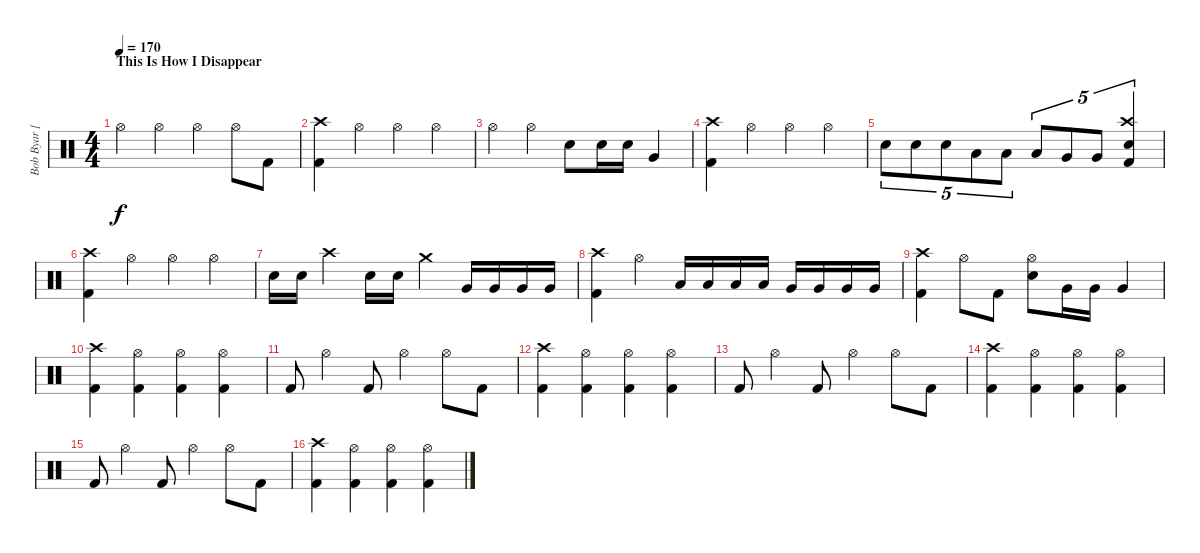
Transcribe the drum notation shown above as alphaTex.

\track ("Bob Byar [Drums]" "Bob Byar [") {instrument percussion}
\staff {score}
\articulation defaults
\ts (4 4)
\section ("" "This Is How I Disappear")
\tempo 170
\clef neutral
\ks c "Hi-Hat (open)".4{dy f} "Hi-Hat (open)".4 "Hi-Hat (open)".4 "Hi-Hat (open)".8 "Kick (hit) 2".8
|
("Crash high (hit)" "Kick (hit) 2").4 "Hi-Hat (open)".4 "Hi-Hat (open)".4 "Hi-Hat (open)".4 |
"Hi-Hat (open)".4 "Hi-Hat (open)".4 "Electric Snare (hit)".8 "Electric Snare (hit)".16 "Electric Snare (hit)".16 "Very Low Tom (hit)".4 |
("Crash high (hit)" "Kick (hit) 2").4 "Hi-Hat (open)".4 "Hi-Hat (open)".4 "Hi-Hat (open)".4 |
"Electric Snare (hit)".8{tu (5 4)} "Electric Snare (hit)".8{tu (5 4)} "Electric Snare (hit)".8{tu (5 4)} "Low Tom (hit)".8{tu (5 4)} "Low Tom (hit)".8{tu (5 4)} "Low Tom (hit)".8{tu (5 4)} "Very Low Tom (hit)".8{tu (5 4)} "Very Low Tom (hit)".8{tu (5 4)} ("Crash high (hit)" "Electric Snare (hit)" "Kick (hit) 2").4{tu (5 4)} |
("Crash high (hit)" "Kick (hit) 2").4 "Hi-Hat (open)".4 "Hi-Hat (open)".4 "Hi-Hat (open)".4 |
"Electric Snare (hit)".16 "Electric Snare (hit)".16 "Crash high (hit)".4 "Electric Snare (hit)".16 "Electric Snare (hit)".16 "Crash medium (hit)".4 "Very Low Tom (hit)".16 "Very Low Tom (hit)".16 "Very Low Tom (hit)".16 "Very Low Tom (hit)".16 |
("Crash high (hit)" "Kick (hit) 2").4 "Hi-Hat (open)".4 "Low Tom (hit)".16 "Low Tom (hit)".16 "Low Tom (hit)".16 "Low Tom (hit)".16 "Very Low Tom (hit)".16 "Very Low Tom (hit)".16 "Very Low Tom (hit)".16 "Very Low Tom (hit)".16 |
("Crash high (hit)" "Kick (hit) 2").4 "Hi-Hat (open)".8 "Kick (hit) 2".8 ("Hi-Hat (open)" "Electric Snare (hit)").8 "Very Low Tom (hit)".16 "Very Low Tom (hit)".16 "Very Low Tom (hit)".4 |
("Crash high (hit)" "Kick (hit) 2").4 ("Hi-Hat (open)" "Kick (hit) 2").4 ("Hi-Hat (open)" "Kick (hit) 2").4 ("Hi-Hat (open)" "Kick (hit) 2").4 |
"Kick (hit) 2".8 "Hi-Hat (open)".4 "Kick (hit) 2".8 "Hi-Hat (open)".4 "Hi-Hat (open)".8 "Kick (hit) 2".8 |
("Crash high (hit)" "Kick (hit) 2").4 ("Hi-Hat (open)" "Kick (hit) 2").4 ("Hi-Hat (open)" "Kick (hit) 2").4 ("Hi-Hat (open)" "Kick (hit) 2").4 |
"Kick (hit) 2".8 "Hi-Hat (open)".4 "Kick (hit) 2".8 "Hi-Hat (open)".4 "Hi-Hat (open)".8 "Kick (hit) 2".8 |
("Crash high (hit)" "Kick (hit) 2").4 ("Hi-Hat (open)" "Kick (hit) 2").4 ("Hi-Hat (open)" "Kick (hit) 2").4 ("Hi-Hat (open)" "Kick (hit) 2").4 |
"Kick (hit) 2".8 "Hi-Hat (open)".4 "Kick (hit) 2".8 "Hi-Hat (open)".4 "Hi-Hat (open)".8 "Kick (hit) 2".8 |
("Crash high (hit)" "Kick (hit) 2").4 ("Hi-Hat (open)" "Kick (hit) 2").4 ("Hi-Hat (open)" "Kick (hit) 2").4 ("Hi-Hat (open)" "Kick (hit) 2").4
